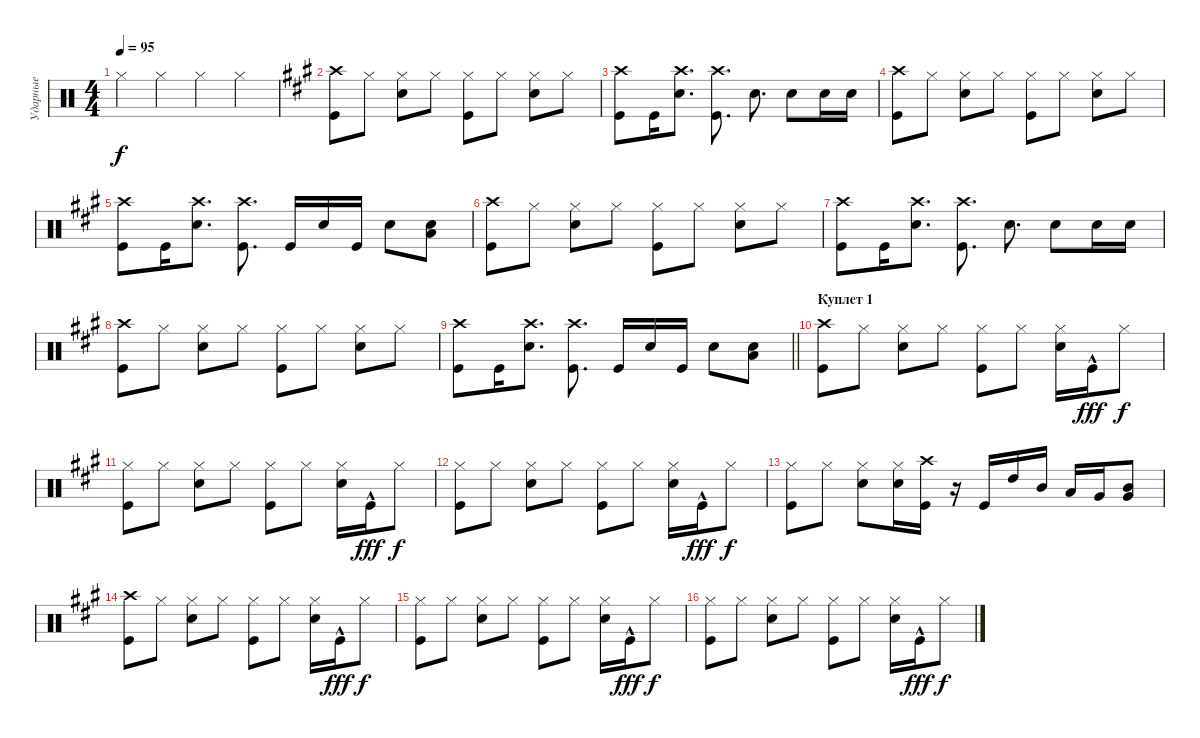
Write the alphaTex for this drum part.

\track ("Ударные" "Ударные") {instrument percussion}
\staff {score}
\articulation defaults
\ts (4 4)
\tempo 95
\clef neutral
\ks c "Hi-Hat (closed)".4{dy f} "Hi-Hat (closed)".4 "Hi-Hat (closed)".4 "Hi-Hat (closed)".4
|
\ks a
("Crash high (hit)" "Kick (hit)").8 "Hi-Hat (closed)".8 ("Hi-Hat (closed)" "Snare (hit) 2").8 "Hi-Hat (closed)".8 ("Hi-Hat (closed)" "Kick (hit)").8 "Hi-Hat (closed)".8 ("Hi-Hat (closed)" "Snare (hit) 2").8 "Hi-Hat (closed)".8 |
("Crash high (hit)" "Kick (hit)").8 "Kick (hit)".16 ("Crash high (hit)" "Snare (hit) 2").8{d} ("Crash high (hit)" "Kick (hit)").8{d} "Snare (hit) 2".8{d} "Snare (hit) 2".8 "Snare (hit) 2".16 "Snare (hit) 2".16 |
("Crash high (hit)" "Kick (hit)").8 "Hi-Hat (closed)".8 ("Hi-Hat (closed)" "Snare (hit) 2").8 "Hi-Hat (closed)".8 ("Hi-Hat (closed)" "Kick (hit)").8 "Hi-Hat (closed)".8 ("Hi-Hat (closed)" "Snare (hit) 2").8 "Hi-Hat (closed)".8 |
("Crash high (hit)" "Kick (hit)").8 "Kick (hit)".16 ("Crash high (hit)" "Snare (hit) 2").8{d} ("Crash high (hit)" "Kick (hit)").8{d} "Kick (hit)".16 "Snare (hit) 2".16 "Kick (hit)".16 "Snare (hit) 2".8 ("Low Tom (hit)" "Snare (hit) 2").8 |
("Crash high (hit)" "Kick (hit)").8 "Hi-Hat (closed)".8 ("Hi-Hat (closed)" "Snare (hit) 2").8 "Hi-Hat (closed)".8 ("Hi-Hat (closed)" "Kick (hit)").8 "Hi-Hat (closed)".8 ("Hi-Hat (closed)" "Snare (hit) 2").8 "Hi-Hat (closed)".8 |
("Crash high (hit)" "Kick (hit)").8 "Kick (hit)".16 ("Crash high (hit)" "Snare (hit) 2").8{d} ("Crash high (hit)" "Kick (hit)").8{d} "Snare (hit) 2".8{d} "Snare (hit) 2".8 "Snare (hit) 2".16 "Snare (hit) 2".16 |
("Crash high (hit)" "Kick (hit)").8 "Hi-Hat (closed)".8 ("Hi-Hat (closed)" "Snare (hit) 2").8 "Hi-Hat (closed)".8 ("Hi-Hat (closed)" "Kick (hit)").8 "Hi-Hat (closed)".8 ("Hi-Hat (closed)" "Snare (hit) 2").8 "Hi-Hat (closed)".8 |
\barLineRight lightlight
("Crash high (hit)" "Kick (hit)").8 "Kick (hit)".16 ("Crash high (hit)" "Snare (hit) 2").8{d} ("Crash high (hit)" "Kick (hit)").8{d} "Kick (hit)".16 "Snare (hit) 2".16 "Kick (hit)".16 "Snare (hit) 2".8 ("Low Tom (hit)" "Snare (hit) 2").8 |
\section ("" "Куплет 1")
("Crash high (hit)" "Kick (hit)").8 "Hi-Hat (closed)".8 ("Hi-Hat (closed)" "Snare (hit) 2").8 "Hi-Hat (closed)".8 ("Hi-Hat (closed)" "Kick (hit)").8 "Hi-Hat (closed)".8 ("Hi-Hat (closed)" "Snare (hit) 2").16 "Kick (hit)"{hac}.16{dy fff} "Hi-Hat (closed)".8{dy f} |
("Hi-Hat (closed)" "Kick (hit)").8 "Hi-Hat (closed)".8 ("Hi-Hat (closed)" "Snare (hit) 2").8 "Hi-Hat (closed)".8 ("Hi-Hat (closed)" "Kick (hit)").8 "Hi-Hat (closed)".8 ("Hi-Hat (closed)" "Snare (hit) 2").16 "Kick (hit)"{hac}.16{dy fff} "Hi-Hat (closed)".8{dy f} |
("Hi-Hat (closed)" "Kick (hit)").8 "Hi-Hat (closed)".8 ("Hi-Hat (closed)" "Snare (hit) 2").8 "Hi-Hat (closed)".8 ("Hi-Hat (closed)" "Kick (hit)").8 "Hi-Hat (closed)".8 ("Hi-Hat (closed)" "Snare (hit) 2").16 "Kick (hit)"{hac}.16{dy fff} "Hi-Hat (closed)".8{dy f} |
("Hi-Hat (closed)" "Kick (hit)").8 "Hi-Hat (closed)".8 ("Hi-Hat (closed)" "Snare (hit) 2").8 ("Hi-Hat (closed)" "Snare (hit) 2").16 ("Crash high (hit)" "Kick (hit)").16 r.16 "Kick (hit)".16 "High Tom (hit)".16 "Mid Tom (hit)".16 "Low Tom (hit)".16 "Very Low Tom (hit)".16 ("Very Low Tom (hit)" "Mid Tom (hit)").8 |
("Crash high (hit)" "Kick (hit)").8 "Hi-Hat (closed)".8 ("Hi-Hat (closed)" "Snare (hit) 2").8 "Hi-Hat (closed)".8 ("Hi-Hat (closed)" "Kick (hit)").8 "Hi-Hat (closed)".8 ("Hi-Hat (closed)" "Snare (hit) 2").16 "Kick (hit)"{hac}.16{dy fff} "Hi-Hat (closed)".8{dy f} |
("Hi-Hat (closed)" "Kick (hit)").8 "Hi-Hat (closed)".8 ("Hi-Hat (closed)" "Snare (hit) 2").8 "Hi-Hat (closed)".8 ("Hi-Hat (closed)" "Kick (hit)").8 "Hi-Hat (closed)".8 ("Hi-Hat (closed)" "Snare (hit) 2").16 "Kick (hit)"{hac}.16{dy fff} "Hi-Hat (closed)".8{dy f} |
("Hi-Hat (closed)" "Kick (hit)").8 "Hi-Hat (closed)".8 ("Hi-Hat (closed)" "Snare (hit) 2").8 "Hi-Hat (closed)".8 ("Hi-Hat (closed)" "Kick (hit)").8 "Hi-Hat (closed)".8 ("Hi-Hat (closed)" "Snare (hit) 2").16 "Kick (hit)"{hac}.16{dy fff} "Hi-Hat (closed)".8{dy f}
